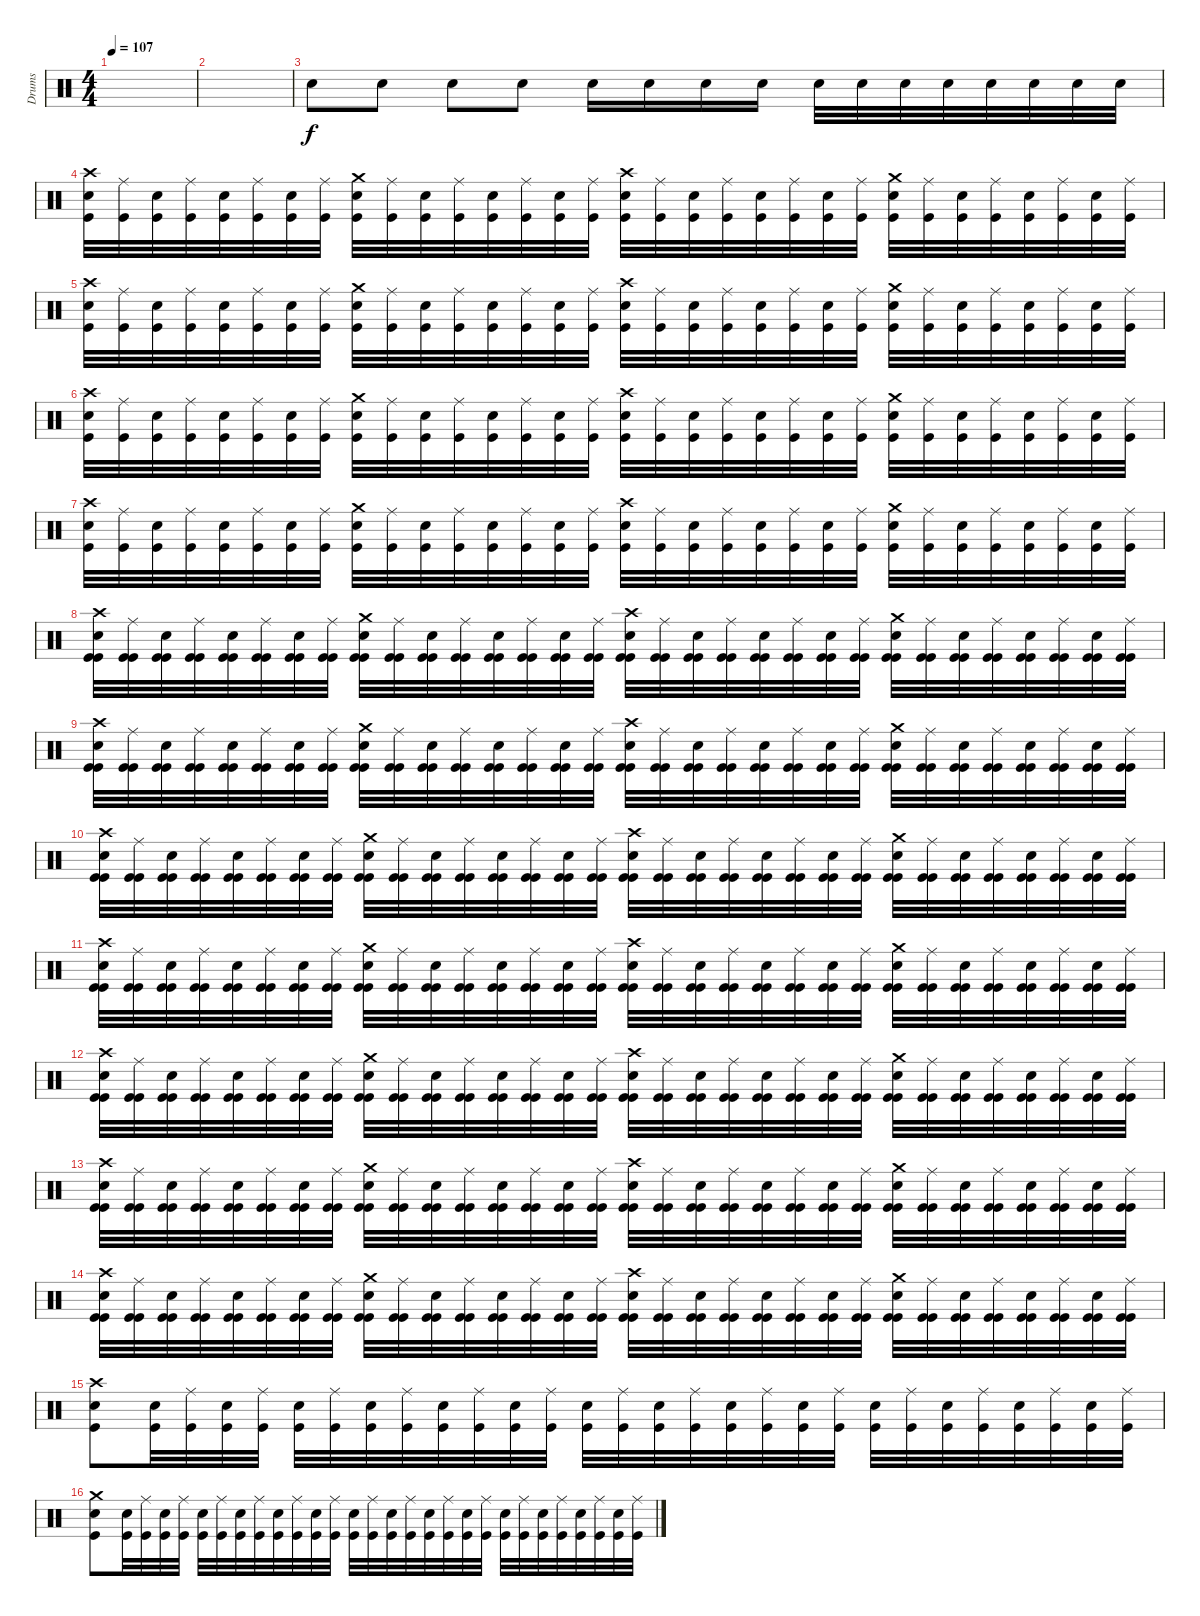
\track ("Drums" "Drums") {instrument percussion}
\staff
\articulation defaults
\ts (4 4)
\tempo 107
\clef neutral
\ks c
|
|
"Electric Snare (hit)".8 "Electric Snare (hit)".8 "Electric Snare (hit)".8 "Electric Snare (hit)".8 "Electric Snare (hit)".16 "Electric Snare (hit)".16 "Electric Snare (hit)".16 "Electric Snare (hit)".16 "Electric Snare (hit)".32 "Electric Snare (hit)".32 "Electric Snare (hit)".32 "Electric Snare (hit)".32 "Electric Snare (hit)".32 "Electric Snare (hit)".32 "Electric Snare (hit)".32 "Electric Snare (hit)".32 |
("Crash high (hit)" "Electric Snare (hit)" "Kick (hit)").32 ("Ride (middle)" "Kick (hit)").32 ("Electric Snare (hit)" "Kick (hit)").32 ("Ride (middle)" "Kick (hit)").32 ("Electric Snare (hit)" "Kick (hit)").32 ("Ride (middle)" "Kick (hit)").32 ("Electric Snare (hit)" "Kick (hit)").32 ("Ride (middle)" "Kick (hit)").32 ("Crash medium (hit)" "Electric Snare (hit)" "Kick (hit)").32 ("Ride (middle)" "Kick (hit)").32 ("Electric Snare (hit)" "Kick (hit)").32 ("Ride (middle)" "Kick (hit)").32 ("Electric Snare (hit)" "Kick (hit)").32 ("Ride (middle)" "Kick (hit)").32 ("Electric Snare (hit)" "Kick (hit)").32 ("Ride (middle)" "Kick (hit)").32 ("Crash high (hit)" "Electric Snare (hit)" "Kick (hit)").32 ("Ride (middle)" "Kick (hit)").32 ("Electric Snare (hit)" "Kick (hit)").32 ("Ride (middle)" "Kick (hit)").32 ("Electric Snare (hit)" "Kick (hit)").32 ("Ride (middle)" "Kick (hit)").32 ("Electric Snare (hit)" "Kick (hit)").32 ("Ride (middle)" "Kick (hit)").32 ("Crash medium (hit)" "Electric Snare (hit)" "Kick (hit)").32 ("Ride (middle)" "Kick (hit)").32 ("Electric Snare (hit)" "Kick (hit)").32 ("Ride (middle)" "Kick (hit)").32 ("Electric Snare (hit)" "Kick (hit)").32 ("Ride (middle)" "Kick (hit)").32 ("Electric Snare (hit)" "Kick (hit)").32 ("Ride (middle)" "Kick (hit)").32 |
("Crash high (hit)" "Electric Snare (hit)" "Kick (hit)").32 ("Ride (middle)" "Kick (hit)").32 ("Electric Snare (hit)" "Kick (hit)").32 ("Ride (middle)" "Kick (hit)").32 ("Electric Snare (hit)" "Kick (hit)").32 ("Ride (middle)" "Kick (hit)").32 ("Electric Snare (hit)" "Kick (hit)").32 ("Ride (middle)" "Kick (hit)").32 ("Crash medium (hit)" "Electric Snare (hit)" "Kick (hit)").32 ("Ride (middle)" "Kick (hit)").32 ("Electric Snare (hit)" "Kick (hit)").32 ("Ride (middle)" "Kick (hit)").32 ("Electric Snare (hit)" "Kick (hit)").32 ("Ride (middle)" "Kick (hit)").32 ("Electric Snare (hit)" "Kick (hit)").32 ("Ride (middle)" "Kick (hit)").32 ("Crash high (hit)" "Electric Snare (hit)" "Kick (hit)").32 ("Ride (middle)" "Kick (hit)").32 ("Electric Snare (hit)" "Kick (hit)").32 ("Ride (middle)" "Kick (hit)").32 ("Electric Snare (hit)" "Kick (hit)").32 ("Ride (middle)" "Kick (hit)").32 ("Electric Snare (hit)" "Kick (hit)").32 ("Ride (middle)" "Kick (hit)").32 ("Crash medium (hit)" "Electric Snare (hit)" "Kick (hit)").32 ("Ride (middle)" "Kick (hit)").32 ("Electric Snare (hit)" "Kick (hit)").32 ("Ride (middle)" "Kick (hit)").32 ("Electric Snare (hit)" "Kick (hit)").32 ("Ride (middle)" "Kick (hit)").32 ("Electric Snare (hit)" "Kick (hit)").32 ("Ride (middle)" "Kick (hit)").32 |
("Crash high (hit)" "Electric Snare (hit)" "Kick (hit)").32 ("Ride (middle)" "Kick (hit)").32 ("Electric Snare (hit)" "Kick (hit)").32 ("Ride (middle)" "Kick (hit)").32 ("Electric Snare (hit)" "Kick (hit)").32 ("Ride (middle)" "Kick (hit)").32 ("Electric Snare (hit)" "Kick (hit)").32 ("Ride (middle)" "Kick (hit)").32 ("Crash medium (hit)" "Electric Snare (hit)" "Kick (hit)").32 ("Ride (middle)" "Kick (hit)").32 ("Electric Snare (hit)" "Kick (hit)").32 ("Ride (middle)" "Kick (hit)").32 ("Electric Snare (hit)" "Kick (hit)").32 ("Ride (middle)" "Kick (hit)").32 ("Electric Snare (hit)" "Kick (hit)").32 ("Ride (middle)" "Kick (hit)").32 ("Crash high (hit)" "Electric Snare (hit)" "Kick (hit)").32 ("Ride (middle)" "Kick (hit)").32 ("Electric Snare (hit)" "Kick (hit)").32 ("Ride (middle)" "Kick (hit)").32 ("Electric Snare (hit)" "Kick (hit)").32 ("Ride (middle)" "Kick (hit)").32 ("Electric Snare (hit)" "Kick (hit)").32 ("Ride (middle)" "Kick (hit)").32 ("Crash medium (hit)" "Electric Snare (hit)" "Kick (hit)").32 ("Ride (middle)" "Kick (hit)").32 ("Electric Snare (hit)" "Kick (hit)").32 ("Ride (middle)" "Kick (hit)").32 ("Electric Snare (hit)" "Kick (hit)").32 ("Ride (middle)" "Kick (hit)").32 ("Electric Snare (hit)" "Kick (hit)").32 ("Ride (middle)" "Kick (hit)").32 |
("Crash high (hit)" "Electric Snare (hit)" "Kick (hit)").32 ("Ride (middle)" "Kick (hit)").32 ("Electric Snare (hit)" "Kick (hit)").32 ("Ride (middle)" "Kick (hit)").32 ("Electric Snare (hit)" "Kick (hit)").32 ("Ride (middle)" "Kick (hit)").32 ("Electric Snare (hit)" "Kick (hit)").32 ("Ride (middle)" "Kick (hit)").32 ("Crash medium (hit)" "Electric Snare (hit)" "Kick (hit)").32 ("Ride (middle)" "Kick (hit)").32 ("Electric Snare (hit)" "Kick (hit)").32 ("Ride (middle)" "Kick (hit)").32 ("Electric Snare (hit)" "Kick (hit)").32 ("Ride (middle)" "Kick (hit)").32 ("Electric Snare (hit)" "Kick (hit)").32 ("Ride (middle)" "Kick (hit)").32 ("Crash high (hit)" "Electric Snare (hit)" "Kick (hit)").32 ("Ride (middle)" "Kick (hit)").32 ("Electric Snare (hit)" "Kick (hit)").32 ("Ride (middle)" "Kick (hit)").32 ("Electric Snare (hit)" "Kick (hit)").32 ("Ride (middle)" "Kick (hit)").32 ("Electric Snare (hit)" "Kick (hit)").32 ("Ride (middle)" "Kick (hit)").32 ("Crash medium (hit)" "Electric Snare (hit)" "Kick (hit)").32 ("Ride (middle)" "Kick (hit)").32 ("Electric Snare (hit)" "Kick (hit)").32 ("Ride (middle)" "Kick (hit)").32 ("Electric Snare (hit)" "Kick (hit)").32 ("Ride (middle)" "Kick (hit)").32 ("Electric Snare (hit)" "Kick (hit)").32 ("Ride (middle)" "Kick (hit)").32 |
("Kick (hit)" "Crash high (hit)" "Electric Snare (hit)" "Kick (hit)").32 ("Kick (hit)" "Ride (middle)" "Kick (hit)").32 ("Kick (hit)" "Electric Snare (hit)" "Kick (hit)").32 ("Kick (hit)" "Ride (middle)" "Kick (hit)").32 ("Kick (hit)" "Electric Snare (hit)" "Kick (hit)").32 ("Kick (hit)" "Ride (middle)" "Kick (hit)").32 ("Kick (hit)" "Electric Snare (hit)" "Kick (hit)").32 ("Kick (hit)" "Ride (middle)" "Kick (hit)").32 ("Kick (hit)" "Crash medium (hit)" "Electric Snare (hit)" "Kick (hit)").32 ("Kick (hit)" "Ride (middle)" "Kick (hit)").32 ("Kick (hit)" "Electric Snare (hit)" "Kick (hit)").32 ("Kick (hit)" "Ride (middle)" "Kick (hit)").32 ("Kick (hit)" "Electric Snare (hit)" "Kick (hit)").32 ("Kick (hit)" "Ride (middle)" "Kick (hit)").32 ("Kick (hit)" "Electric Snare (hit)" "Kick (hit)").32 ("Kick (hit)" "Ride (middle)" "Kick (hit)").32 ("Kick (hit)" "Crash high (hit)" "Electric Snare (hit)" "Kick (hit)").32 ("Kick (hit)" "Ride (middle)" "Kick (hit)").32 ("Kick (hit)" "Electric Snare (hit)" "Kick (hit)").32 ("Kick (hit)" "Ride (middle)" "Kick (hit)").32 ("Kick (hit)" "Electric Snare (hit)" "Kick (hit)").32 ("Kick (hit)" "Ride (middle)" "Kick (hit)").32 ("Kick (hit)" "Electric Snare (hit)" "Kick (hit)").32 ("Kick (hit)" "Ride (middle)" "Kick (hit)").32 ("Kick (hit)" "Crash medium (hit)" "Electric Snare (hit)" "Kick (hit)").32 ("Kick (hit)" "Ride (middle)" "Kick (hit)").32 ("Kick (hit)" "Electric Snare (hit)" "Kick (hit)").32 ("Kick (hit)" "Ride (middle)" "Kick (hit)").32 ("Kick (hit)" "Electric Snare (hit)" "Kick (hit)").32 ("Kick (hit)" "Ride (middle)" "Kick (hit)").32 ("Kick (hit)" "Electric Snare (hit)" "Kick (hit)").32 ("Kick (hit)" "Ride (middle)" "Kick (hit)").32 |
("Kick (hit)" "Crash high (hit)" "Electric Snare (hit)" "Kick (hit)").32 ("Kick (hit)" "Ride (middle)" "Kick (hit)").32 ("Kick (hit)" "Electric Snare (hit)" "Kick (hit)").32 ("Kick (hit)" "Ride (middle)" "Kick (hit)").32 ("Kick (hit)" "Electric Snare (hit)" "Kick (hit)").32 ("Kick (hit)" "Ride (middle)" "Kick (hit)").32 ("Kick (hit)" "Electric Snare (hit)" "Kick (hit)").32 ("Kick (hit)" "Ride (middle)" "Kick (hit)").32 ("Kick (hit)" "Crash medium (hit)" "Electric Snare (hit)" "Kick (hit)").32 ("Kick (hit)" "Ride (middle)" "Kick (hit)").32 ("Kick (hit)" "Electric Snare (hit)" "Kick (hit)").32 ("Kick (hit)" "Ride (middle)" "Kick (hit)").32 ("Kick (hit)" "Electric Snare (hit)" "Kick (hit)").32 ("Kick (hit)" "Ride (middle)" "Kick (hit)").32 ("Kick (hit)" "Electric Snare (hit)" "Kick (hit)").32 ("Kick (hit)" "Ride (middle)" "Kick (hit)").32 ("Kick (hit)" "Crash high (hit)" "Electric Snare (hit)" "Kick (hit)").32 ("Kick (hit)" "Ride (middle)" "Kick (hit)").32 ("Kick (hit)" "Electric Snare (hit)" "Kick (hit)").32 ("Kick (hit)" "Ride (middle)" "Kick (hit)").32 ("Kick (hit)" "Electric Snare (hit)" "Kick (hit)").32 ("Kick (hit)" "Ride (middle)" "Kick (hit)").32 ("Kick (hit)" "Electric Snare (hit)" "Kick (hit)").32 ("Kick (hit)" "Ride (middle)" "Kick (hit)").32 ("Kick (hit)" "Crash medium (hit)" "Electric Snare (hit)" "Kick (hit)").32 ("Kick (hit)" "Ride (middle)" "Kick (hit)").32 ("Kick (hit)" "Electric Snare (hit)" "Kick (hit)").32 ("Kick (hit)" "Ride (middle)" "Kick (hit)").32 ("Kick (hit)" "Electric Snare (hit)" "Kick (hit)").32 ("Kick (hit)" "Ride (middle)" "Kick (hit)").32 ("Kick (hit)" "Electric Snare (hit)" "Kick (hit)").32 ("Kick (hit)" "Ride (middle)" "Kick (hit)").32 |
("Kick (hit)" "Crash high (hit)" "Electric Snare (hit)" "Kick (hit)").32 ("Kick (hit)" "Ride (middle)" "Kick (hit)").32 ("Kick (hit)" "Electric Snare (hit)" "Kick (hit)").32 ("Kick (hit)" "Ride (middle)" "Kick (hit)").32 ("Kick (hit)" "Electric Snare (hit)" "Kick (hit)").32 ("Kick (hit)" "Ride (middle)" "Kick (hit)").32 ("Kick (hit)" "Electric Snare (hit)" "Kick (hit)").32 ("Kick (hit)" "Ride (middle)" "Kick (hit)").32 ("Kick (hit)" "Crash medium (hit)" "Electric Snare (hit)" "Kick (hit)").32 ("Kick (hit)" "Ride (middle)" "Kick (hit)").32 ("Kick (hit)" "Electric Snare (hit)" "Kick (hit)").32 ("Kick (hit)" "Ride (middle)" "Kick (hit)").32 ("Kick (hit)" "Electric Snare (hit)" "Kick (hit)").32 ("Kick (hit)" "Ride (middle)" "Kick (hit)").32 ("Kick (hit)" "Electric Snare (hit)" "Kick (hit)").32 ("Kick (hit)" "Ride (middle)" "Kick (hit)").32 ("Kick (hit)" "Crash high (hit)" "Electric Snare (hit)" "Kick (hit)").32 ("Kick (hit)" "Ride (middle)" "Kick (hit)").32 ("Kick (hit)" "Electric Snare (hit)" "Kick (hit)").32 ("Kick (hit)" "Ride (middle)" "Kick (hit)").32 ("Kick (hit)" "Electric Snare (hit)" "Kick (hit)").32 ("Kick (hit)" "Ride (middle)" "Kick (hit)").32 ("Kick (hit)" "Electric Snare (hit)" "Kick (hit)").32 ("Kick (hit)" "Ride (middle)" "Kick (hit)").32 ("Kick (hit)" "Crash medium (hit)" "Electric Snare (hit)" "Kick (hit)").32 ("Kick (hit)" "Ride (middle)" "Kick (hit)").32 ("Kick (hit)" "Electric Snare (hit)" "Kick (hit)").32 ("Kick (hit)" "Ride (middle)" "Kick (hit)").32 ("Kick (hit)" "Electric Snare (hit)" "Kick (hit)").32 ("Kick (hit)" "Ride (middle)" "Kick (hit)").32 ("Kick (hit)" "Electric Snare (hit)" "Kick (hit)").32 ("Kick (hit)" "Ride (middle)" "Kick (hit)").32 |
("Kick (hit)" "Crash high (hit)" "Electric Snare (hit)" "Kick (hit)").32 ("Kick (hit)" "Ride (middle)" "Kick (hit)").32 ("Kick (hit)" "Electric Snare (hit)" "Kick (hit)").32 ("Kick (hit)" "Ride (middle)" "Kick (hit)").32 ("Kick (hit)" "Electric Snare (hit)" "Kick (hit)").32 ("Kick (hit)" "Ride (middle)" "Kick (hit)").32 ("Kick (hit)" "Electric Snare (hit)" "Kick (hit)").32 ("Kick (hit)" "Ride (middle)" "Kick (hit)").32 ("Kick (hit)" "Crash medium (hit)" "Electric Snare (hit)" "Kick (hit)").32 ("Kick (hit)" "Ride (middle)" "Kick (hit)").32 ("Kick (hit)" "Electric Snare (hit)" "Kick (hit)").32 ("Kick (hit)" "Ride (middle)" "Kick (hit)").32 ("Kick (hit)" "Electric Snare (hit)" "Kick (hit)").32 ("Kick (hit)" "Ride (middle)" "Kick (hit)").32 ("Kick (hit)" "Electric Snare (hit)" "Kick (hit)").32 ("Kick (hit)" "Ride (middle)" "Kick (hit)").32 ("Kick (hit)" "Crash high (hit)" "Electric Snare (hit)" "Kick (hit)").32 ("Kick (hit)" "Ride (middle)" "Kick (hit)").32 ("Kick (hit)" "Electric Snare (hit)" "Kick (hit)").32 ("Kick (hit)" "Ride (middle)" "Kick (hit)").32 ("Kick (hit)" "Electric Snare (hit)" "Kick (hit)").32 ("Kick (hit)" "Ride (middle)" "Kick (hit)").32 ("Kick (hit)" "Electric Snare (hit)" "Kick (hit)").32 ("Kick (hit)" "Ride (middle)" "Kick (hit)").32 ("Kick (hit)" "Crash medium (hit)" "Electric Snare (hit)" "Kick (hit)").32 ("Kick (hit)" "Ride (middle)" "Kick (hit)").32 ("Kick (hit)" "Electric Snare (hit)" "Kick (hit)").32 ("Kick (hit)" "Ride (middle)" "Kick (hit)").32 ("Kick (hit)" "Electric Snare (hit)" "Kick (hit)").32 ("Kick (hit)" "Ride (middle)" "Kick (hit)").32 ("Kick (hit)" "Electric Snare (hit)" "Kick (hit)").32 ("Kick (hit)" "Ride (middle)" "Kick (hit)").32 |
("Kick (hit)" "Crash high (hit)" "Electric Snare (hit)" "Kick (hit)").32{volume 0} ("Kick (hit)" "Ride (middle)" "Kick (hit)").32 ("Kick (hit)" "Electric Snare (hit)" "Kick (hit)").32 ("Kick (hit)" "Ride (middle)" "Kick (hit)").32 ("Kick (hit)" "Electric Snare (hit)" "Kick (hit)").32 ("Kick (hit)" "Ride (middle)" "Kick (hit)").32 ("Kick (hit)" "Electric Snare (hit)" "Kick (hit)").32 ("Kick (hit)" "Ride (middle)" "Kick (hit)").32 ("Kick (hit)" "Crash medium (hit)" "Electric Snare (hit)" "Kick (hit)").32 ("Kick (hit)" "Ride (middle)" "Kick (hit)").32 ("Kick (hit)" "Electric Snare (hit)" "Kick (hit)").32 ("Kick (hit)" "Ride (middle)" "Kick (hit)").32 ("Kick (hit)" "Electric Snare (hit)" "Kick (hit)").32 ("Kick (hit)" "Ride (middle)" "Kick (hit)").32 ("Kick (hit)" "Electric Snare (hit)" "Kick (hit)").32 ("Kick (hit)" "Ride (middle)" "Kick (hit)").32 ("Kick (hit)" "Crash high (hit)" "Electric Snare (hit)" "Kick (hit)").32 ("Kick (hit)" "Ride (middle)" "Kick (hit)").32 ("Kick (hit)" "Electric Snare (hit)" "Kick (hit)").32 ("Kick (hit)" "Ride (middle)" "Kick (hit)").32 ("Kick (hit)" "Electric Snare (hit)" "Kick (hit)").32 ("Kick (hit)" "Ride (middle)" "Kick (hit)").32 ("Kick (hit)" "Electric Snare (hit)" "Kick (hit)").32 ("Kick (hit)" "Ride (middle)" "Kick (hit)").32 ("Kick (hit)" "Crash medium (hit)" "Electric Snare (hit)" "Kick (hit)").32 ("Kick (hit)" "Ride (middle)" "Kick (hit)").32 ("Kick (hit)" "Electric Snare (hit)" "Kick (hit)").32 ("Kick (hit)" "Ride (middle)" "Kick (hit)").32 ("Kick (hit)" "Electric Snare (hit)" "Kick (hit)").32 ("Kick (hit)" "Ride (middle)" "Kick (hit)").32 ("Kick (hit)" "Electric Snare (hit)" "Kick (hit)").32 ("Kick (hit)" "Ride (middle)" "Kick (hit)").32 |
("Kick (hit)" "Crash high (hit)" "Electric Snare (hit)" "Kick (hit)").32 ("Kick (hit)" "Ride (middle)" "Kick (hit)").32 ("Kick (hit)" "Electric Snare (hit)" "Kick (hit)").32 ("Kick (hit)" "Ride (middle)" "Kick (hit)").32 ("Kick (hit)" "Electric Snare (hit)" "Kick (hit)").32 ("Kick (hit)" "Ride (middle)" "Kick (hit)").32 ("Kick (hit)" "Electric Snare (hit)" "Kick (hit)").32 ("Kick (hit)" "Ride (middle)" "Kick (hit)").32 ("Kick (hit)" "Crash medium (hit)" "Electric Snare (hit)" "Kick (hit)").32 ("Kick (hit)" "Ride (middle)" "Kick (hit)").32 ("Kick (hit)" "Electric Snare (hit)" "Kick (hit)").32 ("Kick (hit)" "Ride (middle)" "Kick (hit)").32 ("Kick (hit)" "Electric Snare (hit)" "Kick (hit)").32 ("Kick (hit)" "Ride (middle)" "Kick (hit)").32 ("Kick (hit)" "Electric Snare (hit)" "Kick (hit)").32 ("Kick (hit)" "Ride (middle)" "Kick (hit)").32 ("Kick (hit)" "Crash high (hit)" "Electric Snare (hit)" "Kick (hit)").32 ("Kick (hit)" "Ride (middle)" "Kick (hit)").32 ("Kick (hit)" "Electric Snare (hit)" "Kick (hit)").32 ("Kick (hit)" "Ride (middle)" "Kick (hit)").32 ("Kick (hit)" "Electric Snare (hit)" "Kick (hit)").32 ("Kick (hit)" "Ride (middle)" "Kick (hit)").32 ("Kick (hit)" "Electric Snare (hit)" "Kick (hit)").32 ("Kick (hit)" "Ride (middle)" "Kick (hit)").32 ("Kick (hit)" "Crash medium (hit)" "Electric Snare (hit)" "Kick (hit)").32 ("Kick (hit)" "Ride (middle)" "Kick (hit)").32 ("Kick (hit)" "Electric Snare (hit)" "Kick (hit)").32 ("Kick (hit)" "Ride (middle)" "Kick (hit)").32 ("Kick (hit)" "Electric Snare (hit)" "Kick (hit)").32 ("Kick (hit)" "Ride (middle)" "Kick (hit)").32 ("Kick (hit)" "Electric Snare (hit)" "Kick (hit)").32 ("Kick (hit)" "Ride (middle)" "Kick (hit)").32 |
("Kick (hit)" "Crash high (hit)" "Electric Snare (hit)" "Kick (hit)").32 ("Kick (hit)" "Ride (middle)" "Kick (hit)").32 ("Kick (hit)" "Electric Snare (hit)" "Kick (hit)").32 ("Kick (hit)" "Ride (middle)" "Kick (hit)").32 ("Kick (hit)" "Electric Snare (hit)" "Kick (hit)").32 ("Kick (hit)" "Ride (middle)" "Kick (hit)").32 ("Kick (hit)" "Electric Snare (hit)" "Kick (hit)").32 ("Kick (hit)" "Ride (middle)" "Kick (hit)").32 ("Kick (hit)" "Crash medium (hit)" "Electric Snare (hit)" "Kick (hit)").32 ("Kick (hit)" "Ride (middle)" "Kick (hit)").32 ("Kick (hit)" "Electric Snare (hit)" "Kick (hit)").32 ("Kick (hit)" "Ride (middle)" "Kick (hit)").32 ("Kick (hit)" "Electric Snare (hit)" "Kick (hit)").32 ("Kick (hit)" "Ride (middle)" "Kick (hit)").32 ("Kick (hit)" "Electric Snare (hit)" "Kick (hit)").32 ("Kick (hit)" "Ride (middle)" "Kick (hit)").32 ("Kick (hit)" "Crash high (hit)" "Electric Snare (hit)" "Kick (hit)").32 ("Kick (hit)" "Ride (middle)" "Kick (hit)").32 ("Kick (hit)" "Electric Snare (hit)" "Kick (hit)").32 ("Kick (hit)" "Ride (middle)" "Kick (hit)").32 ("Kick (hit)" "Electric Snare (hit)" "Kick (hit)").32 ("Kick (hit)" "Ride (middle)" "Kick (hit)").32 ("Kick (hit)" "Electric Snare (hit)" "Kick (hit)").32 ("Kick (hit)" "Ride (middle)" "Kick (hit)").32 ("Kick (hit)" "Crash medium (hit)" "Electric Snare (hit)" "Kick (hit)").32 ("Kick (hit)" "Ride (middle)" "Kick (hit)").32 ("Kick (hit)" "Electric Snare (hit)" "Kick (hit)").32 ("Kick (hit)" "Ride (middle)" "Kick (hit)").32 ("Kick (hit)" "Electric Snare (hit)" "Kick (hit)").32 ("Kick (hit)" "Ride (middle)" "Kick (hit)").32 ("Kick (hit)" "Electric Snare (hit)" "Kick (hit)").32 ("Kick (hit)" "Ride (middle)" "Kick (hit)").32 |
("Crash high (hit)" "Electric Snare (hit)" "Kick (hit)").8{volume 16} ("Electric Snare (hit)" "Kick (hit)").32 ("Ride (middle)" "Kick (hit)").32 ("Electric Snare (hit)" "Kick (hit)").32 ("Ride (middle)" "Kick (hit)").32 ("Electric Snare (hit)" "Kick (hit)").32 ("Ride (middle)" "Kick (hit)").32 ("Electric Snare (hit)" "Kick (hit)").32 ("Ride (middle)" "Kick (hit)").32 ("Electric Snare (hit)" "Kick (hit)").32 ("Ride (middle)" "Kick (hit)").32 ("Electric Snare (hit)" "Kick (hit)").32 ("Ride (middle)" "Kick (hit)").32 ("Electric Snare (hit)" "Kick (hit)").32 ("Ride (middle)" "Kick (hit)").32 ("Electric Snare (hit)" "Kick (hit)").32 ("Ride (middle)" "Kick (hit)").32 ("Electric Snare (hit)" "Kick (hit)").32 ("Ride (middle)" "Kick (hit)").32 ("Electric Snare (hit)" "Kick (hit)").32 ("Ride (middle)" "Kick (hit)").32 ("Electric Snare (hit)" "Kick (hit)").32 ("Ride (middle)" "Kick (hit)").32 ("Electric Snare (hit)" "Kick (hit)").32 ("Ride (middle)" "Kick (hit)").32 ("Electric Snare (hit)" "Kick (hit)").32 ("Ride (middle)" "Kick (hit)").32 ("Electric Snare (hit)" "Kick (hit)").32 ("Ride (middle)" "Kick (hit)").32 |
("Crash medium (hit)" "Electric Snare (hit)" "Kick (hit)").8 ("Electric Snare (hit)" "Kick (hit)").32 ("Ride (middle)" "Kick (hit)").32 ("Electric Snare (hit)" "Kick (hit)").32 ("Ride (middle)" "Kick (hit)").32 ("Electric Snare (hit)" "Kick (hit)").32 ("Ride (middle)" "Kick (hit)").32 ("Electric Snare (hit)" "Kick (hit)").32 ("Ride (middle)" "Kick (hit)").32 ("Electric Snare (hit)" "Kick (hit)").32 ("Ride (middle)" "Kick (hit)").32 ("Electric Snare (hit)" "Kick (hit)").32 ("Ride (middle)" "Kick (hit)").32 ("Electric Snare (hit)" "Kick (hit)").32 ("Ride (middle)" "Kick (hit)").32 ("Electric Snare (hit)" "Kick (hit)").32 ("Ride (middle)" "Kick (hit)").32 ("Electric Snare (hit)" "Kick (hit)").32 ("Ride (middle)" "Kick (hit)").32 ("Electric Snare (hit)" "Kick (hit)").32 ("Ride (middle)" "Kick (hit)").32 ("Electric Snare (hit)" "Kick (hit)").32 ("Ride (middle)" "Kick (hit)").32 ("Electric Snare (hit)" "Kick (hit)").32 ("Ride (middle)" "Kick (hit)").32 ("Electric Snare (hit)" "Kick (hit)").32 ("Ride (middle)" "Kick (hit)").32 ("Electric Snare (hit)" "Kick (hit)").32 ("Ride (middle)" "Kick (hit)").32
